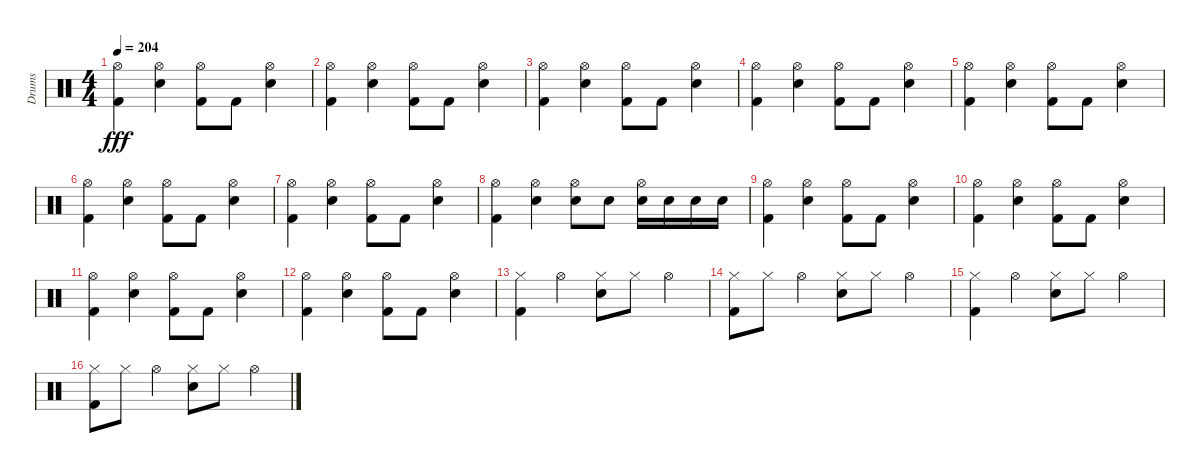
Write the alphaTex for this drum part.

\track ("Drums" "Drums") {instrument percussion}
\staff {score}
\articulation defaults
\ts (4 4)
\tempo 204
\clef neutral
\ks c
("Hi-Hat (open)" "Kick (hit) 2").4{dy fff} ("Hi-Hat (open)" "Snare (hit) 2").4 ("Hi-Hat (open)" "Kick (hit) 2").8 "Kick (hit) 2".8 ("Hi-Hat (open)" "Snare (hit) 2").4 |
("Hi-Hat (open)" "Kick (hit) 2").4 ("Hi-Hat (open)" "Snare (hit) 2").4 ("Hi-Hat (open)" "Kick (hit) 2").8 "Kick (hit) 2".8 ("Hi-Hat (open)" "Snare (hit) 2").4 |
("Hi-Hat (open)" "Kick (hit) 2").4 ("Hi-Hat (open)" "Snare (hit) 2").4 ("Hi-Hat (open)" "Kick (hit) 2").8 "Kick (hit) 2".8 ("Hi-Hat (open)" "Snare (hit) 2").4 |
("Hi-Hat (open)" "Kick (hit) 2").4 ("Hi-Hat (open)" "Snare (hit) 2").4 ("Hi-Hat (open)" "Kick (hit) 2").8 "Kick (hit) 2".8 ("Hi-Hat (open)" "Snare (hit) 2").4 |
("Hi-Hat (open)" "Kick (hit) 2").4 ("Hi-Hat (open)" "Snare (hit) 2").4 ("Hi-Hat (open)" "Kick (hit) 2").8 "Kick (hit) 2".8 ("Hi-Hat (open)" "Snare (hit) 2").4 |
("Hi-Hat (open)" "Kick (hit) 2").4 ("Hi-Hat (open)" "Snare (hit) 2").4 ("Hi-Hat (open)" "Kick (hit) 2").8 "Kick (hit) 2".8 ("Hi-Hat (open)" "Snare (hit) 2").4 |
("Hi-Hat (open)" "Kick (hit) 2").4 ("Hi-Hat (open)" "Snare (hit) 2").4 ("Hi-Hat (open)" "Kick (hit) 2").8 "Kick (hit) 2".8 ("Hi-Hat (open)" "Snare (hit) 2").4 |
("Hi-Hat (open)" "Kick (hit) 2").4 ("Hi-Hat (open)" "Snare (hit) 2").4 ("Hi-Hat (open)" "Snare (hit) 2").8 "Snare (hit) 2".8 ("Hi-Hat (open)" "Snare (hit) 2").16 "Snare (hit) 2".16 "Snare (hit) 2".16 "Snare (hit) 2".16 |
("Hi-Hat (open)" "Kick (hit) 2").4 ("Hi-Hat (open)" "Snare (hit) 2").4 ("Hi-Hat (open)" "Kick (hit) 2").8 "Kick (hit) 2".8 ("Hi-Hat (open)" "Snare (hit) 2").4 |
("Hi-Hat (open)" "Kick (hit) 2").4 ("Hi-Hat (open)" "Snare (hit) 2").4 ("Hi-Hat (open)" "Kick (hit) 2").8 "Kick (hit) 2".8 ("Hi-Hat (open)" "Snare (hit) 2").4 |
("Hi-Hat (open)" "Kick (hit) 2").4 ("Hi-Hat (open)" "Snare (hit) 2").4 ("Hi-Hat (open)" "Kick (hit) 2").8 "Kick (hit) 2".8 ("Hi-Hat (open)" "Snare (hit) 2").4 |
("Hi-Hat (open)" "Kick (hit) 2").4 ("Hi-Hat (open)" "Snare (hit) 2").4 ("Hi-Hat (open)" "Kick (hit) 2").8 "Kick (hit) 2".8 ("Hi-Hat (open)" "Snare (hit) 2").4 |
("Kick (hit) 2" "Hi-Hat (closed)").4 "Hi-Hat (open)".4 ("Snare (hit) 2" "Hi-Hat (closed)").8 "Hi-Hat (closed)".8 "Hi-Hat (open)".4 |
("Kick (hit) 2" "Hi-Hat (closed)").8 "Hi-Hat (closed)".8 "Hi-Hat (open)".4 ("Snare (hit) 2" "Hi-Hat (closed)").8 "Hi-Hat (closed)".8 "Hi-Hat (open)".4 |
("Kick (hit) 2" "Hi-Hat (closed)").4 "Hi-Hat (open)".4 ("Snare (hit) 2" "Hi-Hat (closed)").8 "Hi-Hat (closed)".8 "Hi-Hat (open)".4 |
("Kick (hit) 2" "Hi-Hat (closed)").8 "Hi-Hat (closed)".8 "Hi-Hat (open)".4 ("Snare (hit) 2" "Hi-Hat (closed)").8 "Hi-Hat (closed)".8 "Hi-Hat (open)".4
